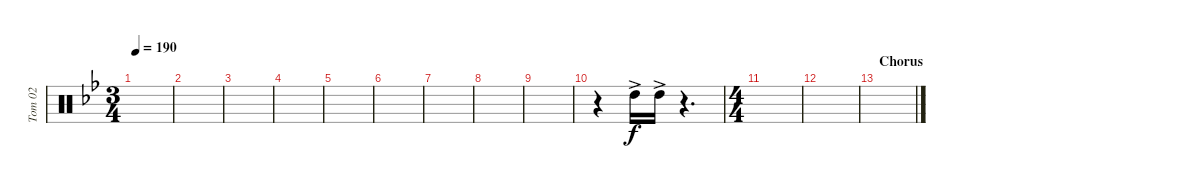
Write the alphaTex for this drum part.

\track ("Tom 02" "Tom 02") {instrument percussion}
\staff {score}
\articulation defaults
\ts (3 4)
\tempo 190
\clef neutral
\ks bb
|
|
|
|
|
|
|
|
|
r.4 "High Tom (hit)"{ac}.16 "High Tom (hit)"{ac}.16 r.4{d} |
\ts (4 4)
|
|
\section ("" "Chorus")
